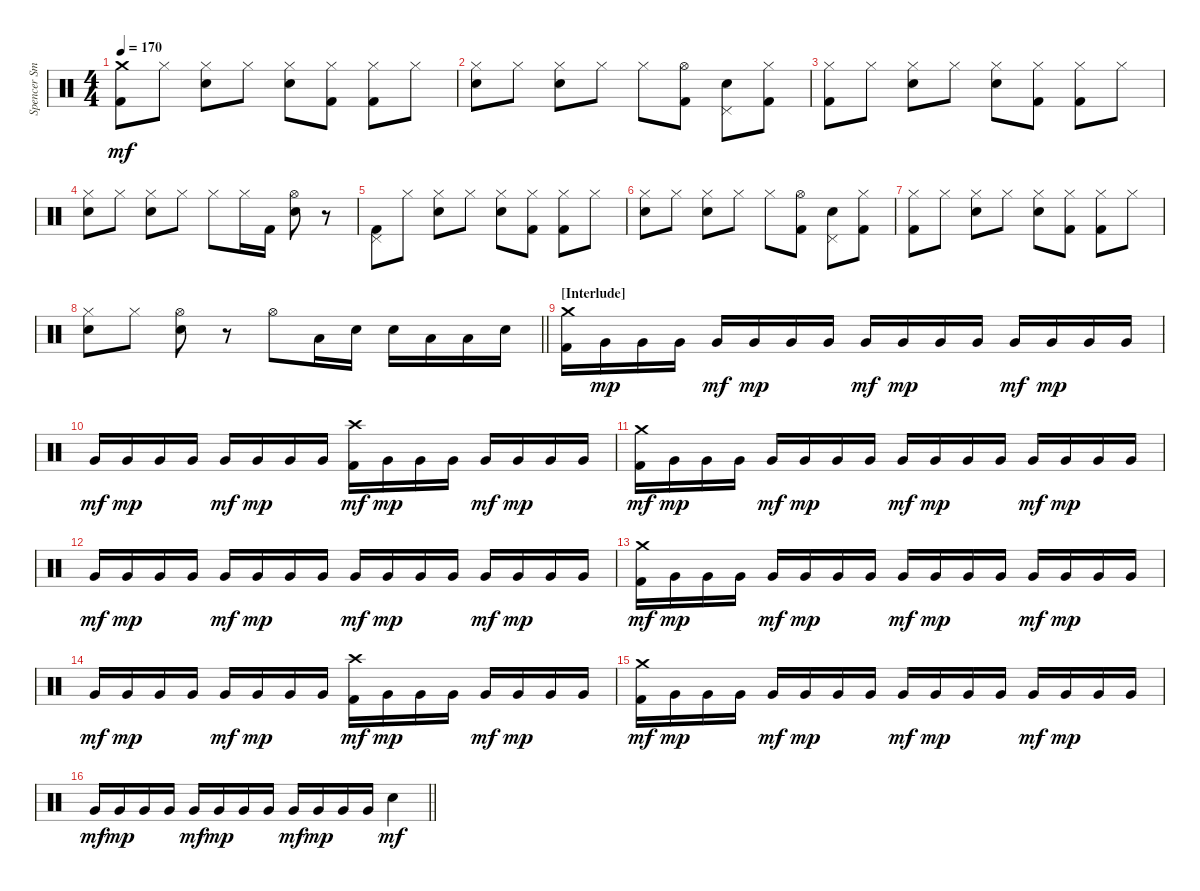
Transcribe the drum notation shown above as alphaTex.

\track ("Spencer Smith" "Spencer Sm") {instrument percussion}
\staff {score}
\articulation defaults
\ts (4 4)
\tempo 170
\clef neutral
\ks c
("Crash medium (hit)" "Kick (hit) 2").8{dy mf} "Hi-Hat (closed)".8 ("Hi-Hat (closed)" "Electric Snare (hit)").8 "Hi-Hat (closed)".8 ("Hi-Hat (closed)" "Electric Snare (hit)").8 ("Hi-Hat (closed)" "Kick (hit) 2").8 ("Hi-Hat (closed)" "Kick (hit) 2").8 "Hi-Hat (closed)".8 |
("Hi-Hat (closed)" "Electric Snare (hit)").8 "Hi-Hat (closed)".8 ("Hi-Hat (closed)" "Electric Snare (hit)").8 "Hi-Hat (closed)".8 "Hi-Hat (closed)".8 ("Hi-Hat (open)" "Kick (hit) 2").8 ("Pedal Hi-Hat (hit)" "Electric Snare (hit)").8 ("Hi-Hat (closed)" "Kick (hit) 2").8 |
("Hi-Hat (closed)" "Kick (hit) 2").8 "Hi-Hat (closed)".8 ("Hi-Hat (closed)" "Electric Snare (hit)").8 "Hi-Hat (closed)".8 ("Hi-Hat (closed)" "Electric Snare (hit)").8 ("Hi-Hat (closed)" "Kick (hit) 2").8 ("Hi-Hat (closed)" "Kick (hit) 2").8 "Hi-Hat (closed)".8 |
("Hi-Hat (closed)" "Electric Snare (hit)").8 "Hi-Hat (closed)".8 ("Hi-Hat (closed)" "Electric Snare (hit)").8 "Hi-Hat (closed)".8 "Hi-Hat (closed)".8 "Hi-Hat (closed)".16 "Kick (hit) 2".16 ("Hi-Hat (open)" "Electric Snare (hit)").8 r.8 |
("Pedal Hi-Hat (hit)" "Kick (hit) 2").8 "Hi-Hat (closed)".8 ("Hi-Hat (closed)" "Electric Snare (hit)").8 "Hi-Hat (closed)".8 ("Hi-Hat (closed)" "Electric Snare (hit)").8 ("Hi-Hat (closed)" "Kick (hit) 2").8 ("Hi-Hat (closed)" "Kick (hit) 2").8 "Hi-Hat (closed)".8 |
("Hi-Hat (closed)" "Electric Snare (hit)").8 "Hi-Hat (closed)".8 ("Hi-Hat (closed)" "Electric Snare (hit)").8 "Hi-Hat (closed)".8 "Hi-Hat (closed)".8 ("Hi-Hat (open)" "Kick (hit) 2").8 ("Pedal Hi-Hat (hit)" "Electric Snare (hit)").8 ("Hi-Hat (closed)" "Kick (hit) 2").8 |
("Hi-Hat (closed)" "Kick (hit) 2").8 "Hi-Hat (closed)".8 ("Hi-Hat (closed)" "Electric Snare (hit)").8 "Hi-Hat (closed)".8 ("Hi-Hat (closed)" "Electric Snare (hit)").8 ("Hi-Hat (closed)" "Kick (hit) 2").8 ("Hi-Hat (closed)" "Kick (hit) 2").8 "Hi-Hat (closed)".8 |
\barLineRight lightlight
("Hi-Hat (closed)" "Electric Snare (hit)").8 "Hi-Hat (closed)".8 ("Hi-Hat (open)" "Electric Snare (hit)").8 r.8 "Hi-Hat (open)".8 "Low Tom (hit)".16 "Electric Snare (hit)".16 "Electric Snare (hit)".16 "Low Tom (hit)".16 "Low Tom (hit)".16 "Electric Snare (hit)".16 |
\section ("" "[Interlude]")
("Crash medium (hit)" "Kick (hit) 2").16 "Very Low Tom (hit)".16{dy mp} "Very Low Tom (hit)".16 "Very Low Tom (hit)".16 "Very Low Tom (hit)".16{dy mf} "Very Low Tom (hit)".16{dy mp} "Very Low Tom (hit)".16 "Very Low Tom (hit)".16 "Very Low Tom (hit)".16{dy mf} "Very Low Tom (hit)".16{dy mp} "Very Low Tom (hit)".16 "Very Low Tom (hit)".16 "Very Low Tom (hit)".16{dy mf} "Very Low Tom (hit)".16{dy mp} "Very Low Tom (hit)".16 "Very Low Tom (hit)".16 |
"Very Low Tom (hit)".16{dy mf} "Very Low Tom (hit)".16{dy mp} "Very Low Tom (hit)".16 "Very Low Tom (hit)".16 "Very Low Tom (hit)".16{dy mf} "Very Low Tom (hit)".16{dy mp} "Very Low Tom (hit)".16 "Very Low Tom (hit)".16 ("Crash high (hit)" "Kick (hit) 2").16{dy mf} "Very Low Tom (hit)".16{dy mp} "Very Low Tom (hit)".16 "Very Low Tom (hit)".16 "Very Low Tom (hit)".16{dy mf} "Very Low Tom (hit)".16{dy mp} "Very Low Tom (hit)".16 "Very Low Tom (hit)".16 |
("Crash medium (hit)" "Kick (hit) 2").16{dy mf} "Very Low Tom (hit)".16{dy mp} "Very Low Tom (hit)".16 "Very Low Tom (hit)".16 "Very Low Tom (hit)".16{dy mf} "Very Low Tom (hit)".16{dy mp} "Very Low Tom (hit)".16 "Very Low Tom (hit)".16 "Very Low Tom (hit)".16{dy mf} "Very Low Tom (hit)".16{dy mp} "Very Low Tom (hit)".16 "Very Low Tom (hit)".16 "Very Low Tom (hit)".16{dy mf} "Very Low Tom (hit)".16{dy mp} "Very Low Tom (hit)".16 "Very Low Tom (hit)".16 |
"Very Low Tom (hit)".16{dy mf} "Very Low Tom (hit)".16{dy mp} "Very Low Tom (hit)".16 "Very Low Tom (hit)".16 "Very Low Tom (hit)".16{dy mf} "Very Low Tom (hit)".16{dy mp} "Very Low Tom (hit)".16 "Very Low Tom (hit)".16 "Very Low Tom (hit)".16{dy mf} "Very Low Tom (hit)".16{dy mp} "Very Low Tom (hit)".16 "Very Low Tom (hit)".16 "Very Low Tom (hit)".16{dy mf} "Very Low Tom (hit)".16{dy mp} "Very Low Tom (hit)".16 "Very Low Tom (hit)".16 |
("Crash medium (hit)" "Kick (hit) 2").16{dy mf} "Very Low Tom (hit)".16{dy mp} "Very Low Tom (hit)".16 "Very Low Tom (hit)".16 "Very Low Tom (hit)".16{dy mf} "Very Low Tom (hit)".16{dy mp} "Very Low Tom (hit)".16 "Very Low Tom (hit)".16 "Very Low Tom (hit)".16{dy mf} "Very Low Tom (hit)".16{dy mp} "Very Low Tom (hit)".16 "Very Low Tom (hit)".16 "Very Low Tom (hit)".16{dy mf} "Very Low Tom (hit)".16{dy mp} "Very Low Tom (hit)".16 "Very Low Tom (hit)".16 |
"Very Low Tom (hit)".16{dy mf} "Very Low Tom (hit)".16{dy mp} "Very Low Tom (hit)".16 "Very Low Tom (hit)".16 "Very Low Tom (hit)".16{dy mf} "Very Low Tom (hit)".16{dy mp} "Very Low Tom (hit)".16 "Very Low Tom (hit)".16 ("Crash high (hit)" "Kick (hit) 2").16{dy mf} "Very Low Tom (hit)".16{dy mp} "Very Low Tom (hit)".16 "Very Low Tom (hit)".16 "Very Low Tom (hit)".16{dy mf} "Very Low Tom (hit)".16{dy mp} "Very Low Tom (hit)".16 "Very Low Tom (hit)".16 |
("Crash medium (hit)" "Kick (hit) 2").16{dy mf} "Very Low Tom (hit)".16{dy mp} "Very Low Tom (hit)".16 "Very Low Tom (hit)".16 "Very Low Tom (hit)".16{dy mf} "Very Low Tom (hit)".16{dy mp} "Very Low Tom (hit)".16 "Very Low Tom (hit)".16 "Very Low Tom (hit)".16{dy mf} "Very Low Tom (hit)".16{dy mp} "Very Low Tom (hit)".16 "Very Low Tom (hit)".16 "Very Low Tom (hit)".16{dy mf} "Very Low Tom (hit)".16{dy mp} "Very Low Tom (hit)".16 "Very Low Tom (hit)".16 |
\barLineRight lightlight "Very Low Tom (hit)".16{dy mf} "Very Low Tom (hit)".16{dy mp} "Very Low Tom (hit)".16 "Very Low Tom (hit)".16 "Very Low Tom (hit)".16{dy mf} "Very Low Tom (hit)".16{dy mp} "Very Low Tom (hit)".16 "Very Low Tom (hit)".16 "Very Low Tom (hit)".16{dy mf} "Very Low Tom (hit)".16{dy mp} "Very Low Tom (hit)".16 "Very Low Tom (hit)".16 "Electric Snare (hit)".4{dy mf}
